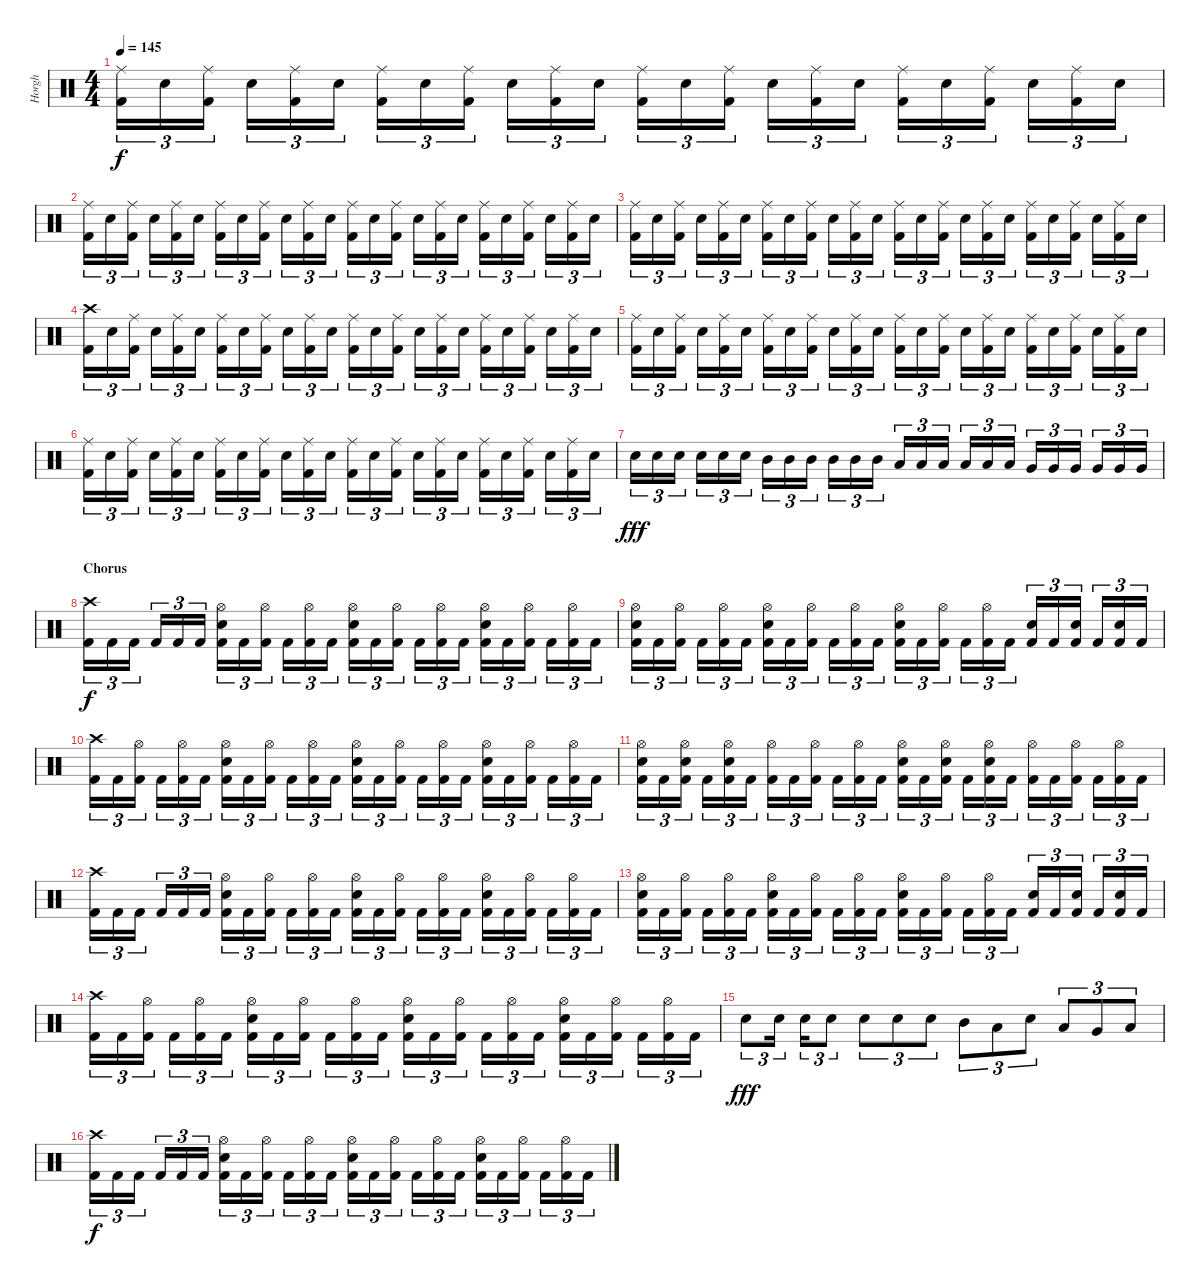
\track ("Horgh" "Horgh") {instrument percussion}
\staff {score}
\articulation defaults
\ts (4 4)
\tempo 145
\clef neutral
\ks c
("Ride (middle)" "Kick (hit) 2").16{tu (3 2) dy f} "Electric Snare (hit)".16{tu (3 2)} ("Ride (middle)" "Kick (hit) 2").16{tu (3 2)} "Electric Snare (hit)".16{tu (3 2)} ("Ride (middle)" "Kick (hit) 2").16{tu (3 2)} "Electric Snare (hit)".16{tu (3 2)} ("Ride (middle)" "Kick (hit) 2").16{tu (3 2)} "Electric Snare (hit)".16{tu (3 2)} ("Ride (middle)" "Kick (hit) 2").16{tu (3 2)} "Electric Snare (hit)".16{tu (3 2)} ("Ride (middle)" "Kick (hit) 2").16{tu (3 2)} "Electric Snare (hit)".16{tu (3 2)} ("Ride (middle)" "Kick (hit) 2").16{tu (3 2)} "Electric Snare (hit)".16{tu (3 2)} ("Ride (middle)" "Kick (hit) 2").16{tu (3 2)} "Electric Snare (hit)".16{tu (3 2)} ("Ride (middle)" "Kick (hit) 2").16{tu (3 2)} "Electric Snare (hit)".16{tu (3 2)} ("Ride (middle)" "Kick (hit) 2").16{tu (3 2)} "Electric Snare (hit)".16{tu (3 2)} ("Ride (middle)" "Kick (hit) 2").16{tu (3 2)} "Electric Snare (hit)".16{tu (3 2)} ("Ride (middle)" "Kick (hit) 2").16{tu (3 2)} "Electric Snare (hit)".16{tu (3 2)} |
("Ride (middle)" "Kick (hit) 2").16{tu (3 2)} "Electric Snare (hit)".16{tu (3 2)} ("Ride (middle)" "Kick (hit) 2").16{tu (3 2)} "Electric Snare (hit)".16{tu (3 2)} ("Ride (middle)" "Kick (hit) 2").16{tu (3 2)} "Electric Snare (hit)".16{tu (3 2)} ("Ride (middle)" "Kick (hit) 2").16{tu (3 2)} "Electric Snare (hit)".16{tu (3 2)} ("Ride (middle)" "Kick (hit) 2").16{tu (3 2)} "Electric Snare (hit)".16{tu (3 2)} ("Ride (middle)" "Kick (hit) 2").16{tu (3 2)} "Electric Snare (hit)".16{tu (3 2)} ("Ride (middle)" "Kick (hit) 2").16{tu (3 2)} "Electric Snare (hit)".16{tu (3 2)} ("Ride (middle)" "Kick (hit) 2").16{tu (3 2)} "Electric Snare (hit)".16{tu (3 2)} ("Ride (middle)" "Kick (hit) 2").16{tu (3 2)} "Electric Snare (hit)".16{tu (3 2)} ("Ride (middle)" "Kick (hit) 2").16{tu (3 2)} "Electric Snare (hit)".16{tu (3 2)} ("Ride (middle)" "Kick (hit) 2").16{tu (3 2)} "Electric Snare (hit)".16{tu (3 2)} ("Ride (middle)" "Kick (hit) 2").16{tu (3 2)} "Electric Snare (hit)".16{tu (3 2)} |
("Ride (middle)" "Kick (hit) 2").16{tu (3 2)} "Electric Snare (hit)".16{tu (3 2)} ("Ride (middle)" "Kick (hit) 2").16{tu (3 2)} "Electric Snare (hit)".16{tu (3 2)} ("Ride (middle)" "Kick (hit) 2").16{tu (3 2)} "Electric Snare (hit)".16{tu (3 2)} ("Ride (middle)" "Kick (hit) 2").16{tu (3 2)} "Electric Snare (hit)".16{tu (3 2)} ("Ride (middle)" "Kick (hit) 2").16{tu (3 2)} "Electric Snare (hit)".16{tu (3 2)} ("Ride (middle)" "Kick (hit) 2").16{tu (3 2)} "Electric Snare (hit)".16{tu (3 2)} ("Ride (middle)" "Kick (hit) 2").16{tu (3 2)} "Electric Snare (hit)".16{tu (3 2)} ("Ride (middle)" "Kick (hit) 2").16{tu (3 2)} "Electric Snare (hit)".16{tu (3 2)} ("Ride (middle)" "Kick (hit) 2").16{tu (3 2)} "Electric Snare (hit)".16{tu (3 2)} ("Ride (middle)" "Kick (hit) 2").16{tu (3 2)} "Electric Snare (hit)".16{tu (3 2)} ("Ride (middle)" "Kick (hit) 2").16{tu (3 2)} "Electric Snare (hit)".16{tu (3 2)} ("Ride (middle)" "Kick (hit) 2").16{tu (3 2)} "Electric Snare (hit)".16{tu (3 2)} |
("Crash high (hit)" "Kick (hit) 2").16{tu (3 2)} "Electric Snare (hit)".16{tu (3 2)} ("Ride (middle)" "Kick (hit) 2").16{tu (3 2)} "Electric Snare (hit)".16{tu (3 2)} ("Ride (middle)" "Kick (hit) 2").16{tu (3 2)} "Electric Snare (hit)".16{tu (3 2)} ("Ride (middle)" "Kick (hit) 2").16{tu (3 2)} "Electric Snare (hit)".16{tu (3 2)} ("Ride (middle)" "Kick (hit) 2").16{tu (3 2)} "Electric Snare (hit)".16{tu (3 2)} ("Ride (middle)" "Kick (hit) 2").16{tu (3 2)} "Electric Snare (hit)".16{tu (3 2)} ("Ride (middle)" "Kick (hit) 2").16{tu (3 2)} "Electric Snare (hit)".16{tu (3 2)} ("Ride (middle)" "Kick (hit) 2").16{tu (3 2)} "Electric Snare (hit)".16{tu (3 2)} ("Ride (middle)" "Kick (hit) 2").16{tu (3 2)} "Electric Snare (hit)".16{tu (3 2)} ("Ride (middle)" "Kick (hit) 2").16{tu (3 2)} "Electric Snare (hit)".16{tu (3 2)} ("Ride (middle)" "Kick (hit) 2").16{tu (3 2)} "Electric Snare (hit)".16{tu (3 2)} ("Ride (middle)" "Kick (hit) 2").16{tu (3 2)} "Electric Snare (hit)".16{tu (3 2)} |
("Ride (middle)" "Kick (hit) 2").16{tu (3 2)} "Electric Snare (hit)".16{tu (3 2)} ("Ride (middle)" "Kick (hit) 2").16{tu (3 2)} "Electric Snare (hit)".16{tu (3 2)} ("Ride (middle)" "Kick (hit) 2").16{tu (3 2)} "Electric Snare (hit)".16{tu (3 2)} ("Ride (middle)" "Kick (hit) 2").16{tu (3 2)} "Electric Snare (hit)".16{tu (3 2)} ("Ride (middle)" "Kick (hit) 2").16{tu (3 2)} "Electric Snare (hit)".16{tu (3 2)} ("Ride (middle)" "Kick (hit) 2").16{tu (3 2)} "Electric Snare (hit)".16{tu (3 2)} ("Ride (middle)" "Kick (hit) 2").16{tu (3 2)} "Electric Snare (hit)".16{tu (3 2)} ("Ride (middle)" "Kick (hit) 2").16{tu (3 2)} "Electric Snare (hit)".16{tu (3 2)} ("Ride (middle)" "Kick (hit) 2").16{tu (3 2)} "Electric Snare (hit)".16{tu (3 2)} ("Ride (middle)" "Kick (hit) 2").16{tu (3 2)} "Electric Snare (hit)".16{tu (3 2)} ("Ride (middle)" "Kick (hit) 2").16{tu (3 2)} "Electric Snare (hit)".16{tu (3 2)} ("Ride (middle)" "Kick (hit) 2").16{tu (3 2)} "Electric Snare (hit)".16{tu (3 2)} |
("Ride (middle)" "Kick (hit) 2").16{tu (3 2)} "Electric Snare (hit)".16{tu (3 2)} ("Ride (middle)" "Kick (hit) 2").16{tu (3 2)} "Electric Snare (hit)".16{tu (3 2)} ("Ride (middle)" "Kick (hit) 2").16{tu (3 2)} "Electric Snare (hit)".16{tu (3 2)} ("Ride (middle)" "Kick (hit) 2").16{tu (3 2)} "Electric Snare (hit)".16{tu (3 2)} ("Ride (middle)" "Kick (hit) 2").16{tu (3 2)} "Electric Snare (hit)".16{tu (3 2)} ("Ride (middle)" "Kick (hit) 2").16{tu (3 2)} "Electric Snare (hit)".16{tu (3 2)} ("Ride (middle)" "Kick (hit) 2").16{tu (3 2)} "Electric Snare (hit)".16{tu (3 2)} ("Ride (middle)" "Kick (hit) 2").16{tu (3 2)} "Electric Snare (hit)".16{tu (3 2)} ("Ride (middle)" "Kick (hit) 2").16{tu (3 2)} "Electric Snare (hit)".16{tu (3 2)} ("Ride (middle)" "Kick (hit) 2").16{tu (3 2)} "Electric Snare (hit)".16{tu (3 2)} ("Ride (middle)" "Kick (hit) 2").16{tu (3 2)} "Electric Snare (hit)".16{tu (3 2)} ("Ride (middle)" "Kick (hit) 2").16{tu (3 2)} "Electric Snare (hit)".16{tu (3 2)} |
"Electric Snare (hit)".16{tu (3 2) dy fff} "Electric Snare (hit)".16{tu (3 2)} "Electric Snare (hit)".16{tu (3 2)} "Electric Snare (hit)".16{tu (3 2)} "Electric Snare (hit)".16{tu (3 2)} "Electric Snare (hit)".16{tu (3 2)} "Mid Tom (hit)".16{tu (3 2)} "Mid Tom (hit)".16{tu (3 2)} "Mid Tom (hit)".16{tu (3 2)} "Mid Tom (hit)".16{tu (3 2)} "Mid Tom (hit)".16{tu (3 2)} "Mid Tom (hit)".16{tu (3 2)} "Low Tom (hit)".16{tu (3 2)} "Low Tom (hit)".16{tu (3 2)} "Low Tom (hit)".16{tu (3 2)} "Low Tom (hit)".16{tu (3 2)} "Low Tom (hit)".16{tu (3 2)} "Low Tom (hit)".16{tu (3 2)} "Very Low Tom (hit)".16{tu (3 2)} "Very Low Tom (hit)".16{tu (3 2)} "Very Low Tom (hit)".16{tu (3 2)} "Very Low Tom (hit)".16{tu (3 2)} "Very Low Tom (hit)".16{tu (3 2)} "Very Low Tom (hit)".16{tu (3 2)} |
\section ("" "Chorus")
("Crash high (hit)" "Kick (hit) 2").16{tu (3 2) dy f} "Kick (hit) 2".16{tu (3 2)} "Kick (hit) 2".16{tu (3 2)} "Kick (hit) 2".16{tu (3 2)} "Kick (hit) 2".16{tu (3 2)} "Kick (hit) 2".16{tu (3 2)} ("Hi-Hat (open)" "Electric Snare (hit)" "Kick (hit) 2").16{tu (3 2)} "Kick (hit) 2".16{tu (3 2)} ("Hi-Hat (open)" "Kick (hit) 2").16{tu (3 2)} "Kick (hit) 2".16{tu (3 2)} ("Hi-Hat (open)" "Kick (hit) 2").16{tu (3 2)} "Kick (hit) 2".16{tu (3 2)} ("Hi-Hat (open)" "Electric Snare (hit)" "Kick (hit) 2").16{tu (3 2)} "Kick (hit) 2".16{tu (3 2)} ("Hi-Hat (open)" "Kick (hit) 2").16{tu (3 2)} "Kick (hit) 2".16{tu (3 2)} ("Hi-Hat (open)" "Kick (hit) 2").16{tu (3 2)} "Kick (hit) 2".16{tu (3 2)} ("Hi-Hat (open)" "Electric Snare (hit)" "Kick (hit) 2").16{tu (3 2)} "Kick (hit) 2".16{tu (3 2)} ("Hi-Hat (open)" "Kick (hit) 2").16{tu (3 2)} "Kick (hit) 2".16{tu (3 2)} ("Hi-Hat (open)" "Kick (hit) 2").16{tu (3 2)} "Kick (hit) 2".16{tu (3 2)} |
("Hi-Hat (open)" "Electric Snare (hit)" "Kick (hit) 2").16{tu (3 2)} "Kick (hit) 2".16{tu (3 2)} ("Hi-Hat (open)" "Kick (hit) 2").16{tu (3 2)} "Kick (hit) 2".16{tu (3 2)} ("Hi-Hat (open)" "Kick (hit) 2").16{tu (3 2)} "Kick (hit) 2".16{tu (3 2)} ("Hi-Hat (open)" "Electric Snare (hit)" "Kick (hit) 2").16{tu (3 2)} "Kick (hit) 2".16{tu (3 2)} ("Hi-Hat (open)" "Kick (hit) 2").16{tu (3 2)} "Kick (hit) 2".16{tu (3 2)} ("Hi-Hat (open)" "Kick (hit) 2").16{tu (3 2)} "Kick (hit) 2".16{tu (3 2)} ("Hi-Hat (open)" "Electric Snare (hit)" "Kick (hit) 2").16{tu (3 2)} "Kick (hit) 2".16{tu (3 2)} ("Hi-Hat (open)" "Kick (hit) 2").16{tu (3 2)} "Kick (hit) 2".16{tu (3 2)} ("Hi-Hat (open)" "Kick (hit) 2").16{tu (3 2)} "Kick (hit) 2".16{tu (3 2)} ("Electric Snare (hit)" "Kick (hit) 2").16{tu (3 2)} "Kick (hit) 2".16{tu (3 2)} ("Electric Snare (hit)" "Kick (hit) 2").16{tu (3 2)} "Kick (hit) 2".16{tu (3 2)} ("Electric Snare (hit)" "Kick (hit) 2").16{tu (3 2)} "Kick (hit) 2".16{tu (3 2)} |
("Crash high (hit)" "Kick (hit) 2").16{tu (3 2)} "Kick (hit) 2".16{tu (3 2)} ("Hi-Hat (open)" "Kick (hit) 2").16{tu (3 2)} "Kick (hit) 2".16{tu (3 2)} ("Hi-Hat (open)" "Kick (hit) 2").16{tu (3 2)} "Kick (hit) 2".16{tu (3 2)} ("Hi-Hat (open)" "Electric Snare (hit)" "Kick (hit) 2").16{tu (3 2)} "Kick (hit) 2".16{tu (3 2)} ("Hi-Hat (open)" "Kick (hit) 2").16{tu (3 2)} "Kick (hit) 2".16{tu (3 2)} ("Hi-Hat (open)" "Kick (hit) 2").16{tu (3 2)} "Kick (hit) 2".16{tu (3 2)} ("Hi-Hat (open)" "Electric Snare (hit)" "Kick (hit) 2").16{tu (3 2)} "Kick (hit) 2".16{tu (3 2)} ("Hi-Hat (open)" "Kick (hit) 2").16{tu (3 2)} "Kick (hit) 2".16{tu (3 2)} ("Hi-Hat (open)" "Kick (hit) 2").16{tu (3 2)} "Kick (hit) 2".16{tu (3 2)} ("Hi-Hat (open)" "Electric Snare (hit)" "Kick (hit) 2").16{tu (3 2)} "Kick (hit) 2".16{tu (3 2)} ("Hi-Hat (open)" "Kick (hit) 2").16{tu (3 2)} "Kick (hit) 2".16{tu (3 2)} ("Hi-Hat (open)" "Kick (hit) 2").16{tu (3 2)} "Kick (hit) 2".16{tu (3 2)} |
("Hi-Hat (open)" "Electric Snare (hit)" "Kick (hit) 2").16{tu (3 2)} "Kick (hit) 2".16{tu (3 2)} ("Hi-Hat (open)" "Electric Snare (hit)" "Kick (hit) 2").16{tu (3 2)} "Kick (hit) 2".16{tu (3 2)} ("Hi-Hat (open)" "Electric Snare (hit)" "Kick (hit) 2").16{tu (3 2)} "Kick (hit) 2".16{tu (3 2)} ("Hi-Hat (open)" "Kick (hit) 2").16{tu (3 2)} "Kick (hit) 2".16{tu (3 2)} ("Hi-Hat (open)" "Kick (hit) 2").16{tu (3 2)} "Kick (hit) 2".16{tu (3 2)} ("Hi-Hat (open)" "Kick (hit) 2").16{tu (3 2)} "Kick (hit) 2".16{tu (3 2)} ("Hi-Hat (open)" "Electric Snare (hit)" "Kick (hit) 2").16{tu (3 2)} "Kick (hit) 2".16{tu (3 2)} ("Hi-Hat (open)" "Electric Snare (hit)" "Kick (hit) 2").16{tu (3 2)} "Kick (hit) 2".16{tu (3 2)} ("Hi-Hat (open)" "Electric Snare (hit)" "Kick (hit) 2").16{tu (3 2)} "Kick (hit) 2".16{tu (3 2)} ("Hi-Hat (open)" "Kick (hit) 2").16{tu (3 2)} "Kick (hit) 2".16{tu (3 2)} ("Hi-Hat (open)" "Kick (hit) 2").16{tu (3 2)} "Kick (hit) 2".16{tu (3 2)} ("Hi-Hat (open)" "Kick (hit) 2").16{tu (3 2)} "Kick (hit) 2".16{tu (3 2)} |
("Crash high (hit)" "Kick (hit) 2").16{tu (3 2)} "Kick (hit) 2".16{tu (3 2)} "Kick (hit) 2".16{tu (3 2)} "Kick (hit) 2".16{tu (3 2)} "Kick (hit) 2".16{tu (3 2)} "Kick (hit) 2".16{tu (3 2)} ("Hi-Hat (open)" "Electric Snare (hit)" "Kick (hit) 2").16{tu (3 2)} "Kick (hit) 2".16{tu (3 2)} ("Hi-Hat (open)" "Kick (hit) 2").16{tu (3 2)} "Kick (hit) 2".16{tu (3 2)} ("Hi-Hat (open)" "Kick (hit) 2").16{tu (3 2)} "Kick (hit) 2".16{tu (3 2)} ("Hi-Hat (open)" "Electric Snare (hit)" "Kick (hit) 2").16{tu (3 2)} "Kick (hit) 2".16{tu (3 2)} ("Hi-Hat (open)" "Kick (hit) 2").16{tu (3 2)} "Kick (hit) 2".16{tu (3 2)} ("Hi-Hat (open)" "Kick (hit) 2").16{tu (3 2)} "Kick (hit) 2".16{tu (3 2)} ("Hi-Hat (open)" "Electric Snare (hit)" "Kick (hit) 2").16{tu (3 2)} "Kick (hit) 2".16{tu (3 2)} ("Hi-Hat (open)" "Kick (hit) 2").16{tu (3 2)} "Kick (hit) 2".16{tu (3 2)} ("Hi-Hat (open)" "Kick (hit) 2").16{tu (3 2)} "Kick (hit) 2".16{tu (3 2)} |
("Hi-Hat (open)" "Electric Snare (hit)" "Kick (hit) 2").16{tu (3 2)} "Kick (hit) 2".16{tu (3 2)} ("Hi-Hat (open)" "Kick (hit) 2").16{tu (3 2)} "Kick (hit) 2".16{tu (3 2)} ("Hi-Hat (open)" "Kick (hit) 2").16{tu (3 2)} "Kick (hit) 2".16{tu (3 2)} ("Hi-Hat (open)" "Electric Snare (hit)" "Kick (hit) 2").16{tu (3 2)} "Kick (hit) 2".16{tu (3 2)} ("Hi-Hat (open)" "Kick (hit) 2").16{tu (3 2)} "Kick (hit) 2".16{tu (3 2)} ("Hi-Hat (open)" "Kick (hit) 2").16{tu (3 2)} "Kick (hit) 2".16{tu (3 2)} ("Hi-Hat (open)" "Electric Snare (hit)" "Kick (hit) 2").16{tu (3 2)} "Kick (hit) 2".16{tu (3 2)} ("Hi-Hat (open)" "Kick (hit) 2").16{tu (3 2)} "Kick (hit) 2".16{tu (3 2)} ("Hi-Hat (open)" "Kick (hit) 2").16{tu (3 2)} "Kick (hit) 2".16{tu (3 2)} ("Electric Snare (hit)" "Kick (hit) 2").16{tu (3 2)} "Kick (hit) 2".16{tu (3 2)} ("Electric Snare (hit)" "Kick (hit) 2").16{tu (3 2)} "Kick (hit) 2".16{tu (3 2)} ("Electric Snare (hit)" "Kick (hit) 2").16{tu (3 2)} "Kick (hit) 2".16{tu (3 2)} |
("Crash high (hit)" "Kick (hit) 2").16{tu (3 2)} "Kick (hit) 2".16{tu (3 2)} ("Hi-Hat (open)" "Kick (hit) 2").16{tu (3 2)} "Kick (hit) 2".16{tu (3 2)} ("Hi-Hat (open)" "Kick (hit) 2").16{tu (3 2)} "Kick (hit) 2".16{tu (3 2)} ("Hi-Hat (open)" "Electric Snare (hit)" "Kick (hit) 2").16{tu (3 2)} "Kick (hit) 2".16{tu (3 2)} ("Hi-Hat (open)" "Kick (hit) 2").16{tu (3 2)} "Kick (hit) 2".16{tu (3 2)} ("Hi-Hat (open)" "Kick (hit) 2").16{tu (3 2)} "Kick (hit) 2".16{tu (3 2)} ("Hi-Hat (open)" "Electric Snare (hit)" "Kick (hit) 2").16{tu (3 2)} "Kick (hit) 2".16{tu (3 2)} ("Hi-Hat (open)" "Kick (hit) 2").16{tu (3 2)} "Kick (hit) 2".16{tu (3 2)} ("Hi-Hat (open)" "Kick (hit) 2").16{tu (3 2)} "Kick (hit) 2".16{tu (3 2)} ("Hi-Hat (open)" "Electric Snare (hit)" "Kick (hit) 2").16{tu (3 2)} "Kick (hit) 2".16{tu (3 2)} ("Hi-Hat (open)" "Kick (hit) 2").16{tu (3 2)} "Kick (hit) 2".16{tu (3 2)} ("Hi-Hat (open)" "Kick (hit) 2").16{tu (3 2)} "Kick (hit) 2".16{tu (3 2)} |
"Electric Snare (hit)".8{tu (3 2) dy fff} "Electric Snare (hit)".16{tu (3 2)} "Electric Snare (hit)".16{tu (3 2)} "Electric Snare (hit)".8{tu (3 2)} "Electric Snare (hit)".8{tu (3 2)} "Electric Snare (hit)".8{tu (3 2)} "Electric Snare (hit)".8{tu (3 2)} "Mid Tom (hit)".8{tu (3 2)} "Low Tom (hit)".8{tu (3 2)} "Electric Snare (hit)".8{tu (3 2)} "Low Tom (hit)".8{tu (3 2)} "Very Low Tom (hit)".8{tu (3 2)} "Low Floor Tom (hit)".8{tu (3 2)} |
("Crash high (hit)" "Kick (hit) 2").16{tu (3 2) dy f} "Kick (hit) 2".16{tu (3 2)} "Kick (hit) 2".16{tu (3 2)} "Kick (hit) 2".16{tu (3 2)} "Kick (hit) 2".16{tu (3 2)} "Kick (hit) 2".16{tu (3 2)} ("Hi-Hat (open)" "Electric Snare (hit)" "Kick (hit) 2").16{tu (3 2)} "Kick (hit) 2".16{tu (3 2)} ("Hi-Hat (open)" "Kick (hit) 2").16{tu (3 2)} "Kick (hit) 2".16{tu (3 2)} ("Hi-Hat (open)" "Kick (hit) 2").16{tu (3 2)} "Kick (hit) 2".16{tu (3 2)} ("Hi-Hat (open)" "Electric Snare (hit)" "Kick (hit) 2").16{tu (3 2)} "Kick (hit) 2".16{tu (3 2)} ("Hi-Hat (open)" "Kick (hit) 2").16{tu (3 2)} "Kick (hit) 2".16{tu (3 2)} ("Hi-Hat (open)" "Kick (hit) 2").16{tu (3 2)} "Kick (hit) 2".16{tu (3 2)} ("Hi-Hat (open)" "Electric Snare (hit)" "Kick (hit) 2").16{tu (3 2)} "Kick (hit) 2".16{tu (3 2)} ("Hi-Hat (open)" "Kick (hit) 2").16{tu (3 2)} "Kick (hit) 2".16{tu (3 2)} ("Hi-Hat (open)" "Kick (hit) 2").16{tu (3 2)} "Kick (hit) 2".16{tu (3 2)}
